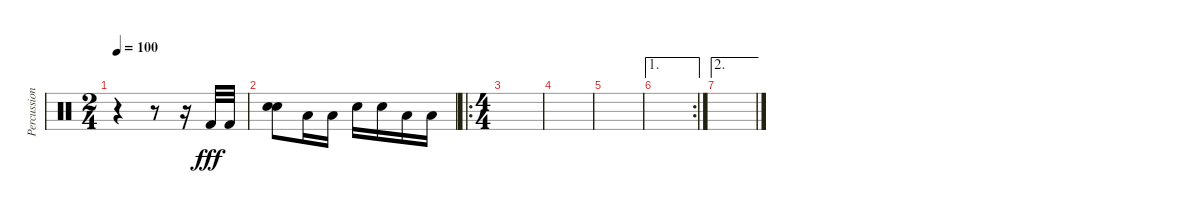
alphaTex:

\track ("Percussion" "Percussion") {instrument percussion}
\staff {score}
\articulation defaults
\ts (2 4)
\tempo 100
\clef neutral
\ks c
r.4{dy fff} r.8 r.16 "Kick (hit) 2".32 "Kick (hit) 2".32 |
("Electric Snare (hit)" "Electric Snare (hit)").8 "Low Floor Tom (hit)".16 "Low Floor Tom (hit)".16 "Electric Snare (hit)".16 "Electric Snare (hit)".16 "Low Floor Tom (hit)".16 "Low Floor Tom (hit)".16 |
\ro
\ts (4 4)
|
|
|
\ae 1
\rc 2
|
\ae 2
